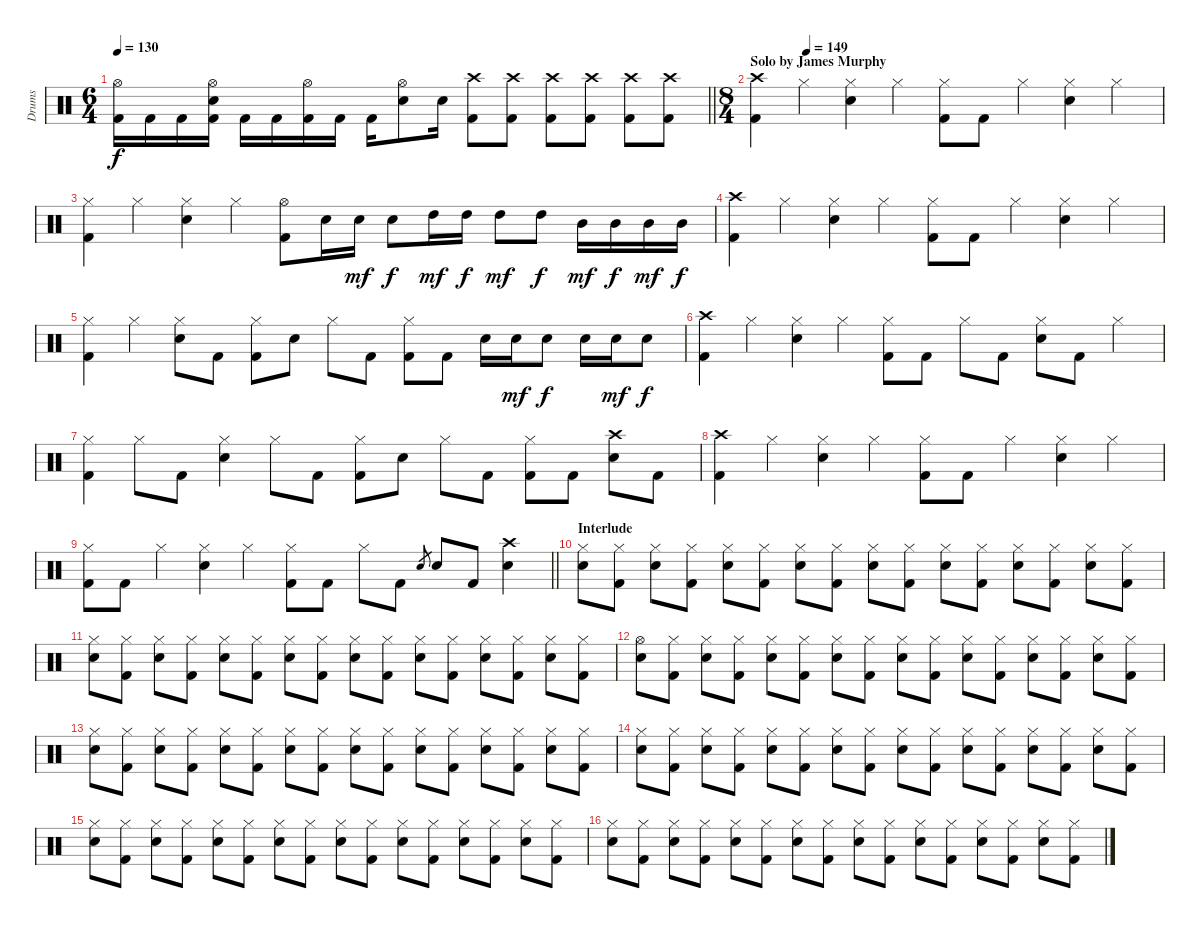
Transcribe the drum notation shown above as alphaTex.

\track ("Drums" "Drums") {instrument percussion}
\staff {score}
\articulation defaults
\ts (6 4)
\tempo 130
\clef neutral
\barLineRight lightlight
\ks c
("Hi-Hat (open)" "Kick (hit) 2").16{dy f} "Kick (hit) 2".16 "Kick (hit) 2".16 ("Hi-Hat (open)" "Snare (hit) 2" "Kick (hit) 2").16 "Kick (hit) 2".16 "Kick (hit) 2".16 ("Hi-Hat (open)" "Kick (hit) 2").16 "Kick (hit) 2".16 "Kick (hit) 2".16 ("Hi-Hat (open)" "Snare (hit) 2").8 "Snare (hit) 2".16 ("Crash high (hit)" "Kick (hit) 2").8 ("Crash high (hit)" "Kick (hit) 2").8 ("Crash high (hit)" "Kick (hit) 2").8 ("Crash high (hit)" "Kick (hit) 2").8 ("Crash high (hit)" "Kick (hit) 2").8 ("Crash high (hit)" "Kick (hit) 2").8 |
\ts (8 4)
\section ("" "Solo by James Murphy")
\tempo (149 0.125)
("Crash high (hit)" "Kick (hit) 2").4 "Hi-Hat (closed)".4 ("Hi-Hat (closed)" "Snare (hit) 2").4 "Hi-Hat (closed)".4 ("Hi-Hat (closed)" "Kick (hit) 2").8 "Kick (hit) 2".8 "Hi-Hat (closed)".4 ("Hi-Hat (closed)" "Snare (hit) 2").4 "Hi-Hat (closed)".4 |
("Hi-Hat (closed)" "Kick (hit) 2").4 "Hi-Hat (closed)".4 ("Hi-Hat (closed)" "Snare (hit) 2").4 "Hi-Hat (closed)".4 ("Hi-Hat (open)" "Kick (hit) 2").8 "Snare (hit) 2".16 "Snare (hit) 2".16{dy mf} "Snare (hit) 2".8{dy f} "High Tom (hit)".16{dy mf} "High Tom (hit)".16{dy f} "High Tom (hit)".8{dy mf} "High Tom (hit)".8{dy f} "Mid Tom (hit)".16{dy mf} "Mid Tom (hit)".16{dy f} "Mid Tom (hit)".16{dy mf} "Mid Tom (hit)".16{dy f} |
("Crash high (hit)" "Kick (hit) 2").4 "Hi-Hat (closed)".4 ("Hi-Hat (closed)" "Snare (hit) 2").4 "Hi-Hat (closed)".4 ("Hi-Hat (closed)" "Kick (hit) 2").8 "Kick (hit) 2".8 "Hi-Hat (closed)".4 ("Hi-Hat (closed)" "Snare (hit) 2").4 "Hi-Hat (closed)".4 |
("Hi-Hat (closed)" "Kick (hit) 2").4 "Hi-Hat (closed)".4 ("Hi-Hat (closed)" "Snare (hit) 2").8 "Kick (hit) 2".8 ("Hi-Hat (closed)" "Kick (hit) 2").8 "Snare (hit) 2".8 "Hi-Hat (closed)".8 "Kick (hit) 2".8 ("Hi-Hat (closed)" "Kick (hit) 2").8 "Kick (hit) 2".8 "Snare (hit) 2".16 "Snare (hit) 2".16{dy mf} "Snare (hit) 2".8{dy f} "Snare (hit) 2".16 "Snare (hit) 2".16{dy mf} "Snare (hit) 2".8{dy f} |
("Crash high (hit)" "Kick (hit) 2").4 "Hi-Hat (closed)".4 ("Hi-Hat (closed)" "Snare (hit) 2").4 "Hi-Hat (closed)".4 ("Hi-Hat (closed)" "Kick (hit) 2").8 "Kick (hit) 2".8 "Hi-Hat (closed)".8 "Kick (hit) 2".8 ("Hi-Hat (closed)" "Snare (hit) 2").8 "Kick (hit) 2".8 "Hi-Hat (closed)".4 |
("Hi-Hat (closed)" "Kick (hit) 2").4 "Hi-Hat (closed)".8 "Kick (hit) 2".8 ("Hi-Hat (closed)" "Snare (hit) 2").4 "Hi-Hat (closed)".8 "Kick (hit) 2".8 ("Hi-Hat (closed)" "Kick (hit) 2").8 "Snare (hit) 2".8 "Hi-Hat (closed)".8 "Kick (hit) 2".8 ("Hi-Hat (closed)" "Kick (hit) 2").8 "Kick (hit) 2".8 ("Crash high (hit)" "Snare (hit) 2").8 "Kick (hit) 2".8 |
("Crash high (hit)" "Kick (hit) 2").4 "Hi-Hat (closed)".4 ("Hi-Hat (closed)" "Snare (hit) 2").4 "Hi-Hat (closed)".4 ("Hi-Hat (closed)" "Kick (hit) 2").8 "Kick (hit) 2".8 "Hi-Hat (closed)".4 ("Hi-Hat (closed)" "Snare (hit) 2").4 "Hi-Hat (closed)".4 |
\barLineRight lightlight
("Hi-Hat (closed)" "Kick (hit) 2").8 "Kick (hit) 2".8 "Hi-Hat (closed)".4 ("Hi-Hat (closed)" "Snare (hit) 2").4 "Hi-Hat (closed)".4 ("Hi-Hat (closed)" "Kick (hit) 2").8 "Kick (hit) 2".8 "Hi-Hat (closed)".8 "Kick (hit) 2".8 "Snare (hit) 2".8{gr} "Snare (hit) 2".8 "Kick (hit) 2".8 ("Crash high (hit)" "Snare (hit) 2").4 |
\section ("" "Interlude")
("Hi-Hat (closed)" "Snare (hit) 2").8 ("Hi-Hat (closed)" "Kick (hit) 2").8 ("Hi-Hat (closed)" "Snare (hit) 2").8 ("Hi-Hat (closed)" "Kick (hit) 2").8 ("Hi-Hat (closed)" "Snare (hit) 2").8 ("Hi-Hat (closed)" "Kick (hit) 2").8 ("Hi-Hat (closed)" "Snare (hit) 2").8 ("Hi-Hat (closed)" "Kick (hit) 2").8 ("Hi-Hat (closed)" "Snare (hit) 2").8 ("Hi-Hat (closed)" "Kick (hit) 2").8 ("Hi-Hat (closed)" "Snare (hit) 2").8 ("Hi-Hat (closed)" "Kick (hit) 2").8 ("Hi-Hat (closed)" "Snare (hit) 2").8 ("Hi-Hat (closed)" "Kick (hit) 2").8 ("Hi-Hat (closed)" "Snare (hit) 2").8 ("Hi-Hat (closed)" "Kick (hit) 2").8 |
("Hi-Hat (closed)" "Snare (hit) 2").8 ("Hi-Hat (closed)" "Kick (hit) 2").8 ("Hi-Hat (closed)" "Snare (hit) 2").8 ("Hi-Hat (closed)" "Kick (hit) 2").8 ("Hi-Hat (closed)" "Snare (hit) 2").8 ("Hi-Hat (closed)" "Kick (hit) 2").8 ("Hi-Hat (closed)" "Snare (hit) 2").8 ("Hi-Hat (closed)" "Kick (hit) 2").8 ("Hi-Hat (closed)" "Snare (hit) 2").8 ("Hi-Hat (closed)" "Kick (hit) 2").8 ("Hi-Hat (closed)" "Snare (hit) 2").8 ("Hi-Hat (closed)" "Kick (hit) 2").8 ("Hi-Hat (closed)" "Snare (hit) 2").8 ("Hi-Hat (closed)" "Kick (hit) 2").8 ("Hi-Hat (closed)" "Snare (hit) 2").8 ("Hi-Hat (closed)" "Kick (hit) 2").8 |
("Hi-Hat (open)" "Snare (hit) 2").8 ("Hi-Hat (closed)" "Kick (hit) 2").8 ("Hi-Hat (closed)" "Snare (hit) 2").8 ("Hi-Hat (closed)" "Kick (hit) 2").8 ("Hi-Hat (closed)" "Snare (hit) 2").8 ("Hi-Hat (closed)" "Kick (hit) 2").8 ("Hi-Hat (closed)" "Snare (hit) 2").8 ("Hi-Hat (closed)" "Kick (hit) 2").8 ("Hi-Hat (closed)" "Snare (hit) 2").8 ("Hi-Hat (closed)" "Kick (hit) 2").8 ("Hi-Hat (closed)" "Snare (hit) 2").8 ("Hi-Hat (closed)" "Kick (hit) 2").8 ("Hi-Hat (closed)" "Snare (hit) 2").8 ("Hi-Hat (closed)" "Kick (hit) 2").8 ("Hi-Hat (closed)" "Snare (hit) 2").8 ("Hi-Hat (closed)" "Kick (hit) 2").8 |
("Hi-Hat (closed)" "Snare (hit) 2").8 ("Hi-Hat (closed)" "Kick (hit) 2").8 ("Hi-Hat (closed)" "Snare (hit) 2").8 ("Hi-Hat (closed)" "Kick (hit) 2").8 ("Hi-Hat (closed)" "Snare (hit) 2").8 ("Hi-Hat (closed)" "Kick (hit) 2").8 ("Hi-Hat (closed)" "Snare (hit) 2").8 ("Hi-Hat (closed)" "Kick (hit) 2").8 ("Hi-Hat (closed)" "Snare (hit) 2").8 ("Hi-Hat (closed)" "Kick (hit) 2").8 ("Hi-Hat (closed)" "Snare (hit) 2").8 ("Hi-Hat (closed)" "Kick (hit) 2").8 ("Hi-Hat (closed)" "Snare (hit) 2").8 ("Hi-Hat (closed)" "Kick (hit) 2").8 ("Hi-Hat (closed)" "Snare (hit) 2").8 ("Hi-Hat (closed)" "Kick (hit) 2").8 |
("Hi-Hat (closed)" "Snare (hit) 2").8 ("Hi-Hat (closed)" "Kick (hit) 2").8 ("Hi-Hat (closed)" "Snare (hit) 2").8 ("Hi-Hat (closed)" "Kick (hit) 2").8 ("Hi-Hat (closed)" "Snare (hit) 2").8 ("Hi-Hat (closed)" "Kick (hit) 2").8 ("Hi-Hat (closed)" "Snare (hit) 2").8 ("Hi-Hat (closed)" "Kick (hit) 2").8 ("Hi-Hat (closed)" "Snare (hit) 2").8 ("Hi-Hat (closed)" "Kick (hit) 2").8 ("Hi-Hat (closed)" "Snare (hit) 2").8 ("Hi-Hat (closed)" "Kick (hit) 2").8 ("Hi-Hat (closed)" "Snare (hit) 2").8 ("Hi-Hat (closed)" "Kick (hit) 2").8 ("Hi-Hat (closed)" "Snare (hit) 2").8 ("Hi-Hat (closed)" "Kick (hit) 2").8 |
("Hi-Hat (closed)" "Snare (hit) 2").8 ("Hi-Hat (closed)" "Kick (hit) 2").8 ("Hi-Hat (closed)" "Snare (hit) 2").8 ("Hi-Hat (closed)" "Kick (hit) 2").8 ("Hi-Hat (closed)" "Snare (hit) 2").8 ("Hi-Hat (closed)" "Kick (hit) 2").8 ("Hi-Hat (closed)" "Snare (hit) 2").8 ("Hi-Hat (closed)" "Kick (hit) 2").8 ("Hi-Hat (closed)" "Snare (hit) 2").8 ("Hi-Hat (closed)" "Kick (hit) 2").8 ("Hi-Hat (closed)" "Snare (hit) 2").8 ("Hi-Hat (closed)" "Kick (hit) 2").8 ("Hi-Hat (closed)" "Snare (hit) 2").8 ("Hi-Hat (closed)" "Kick (hit) 2").8 ("Hi-Hat (closed)" "Snare (hit) 2").8 ("Hi-Hat (closed)" "Kick (hit) 2").8 |
("Hi-Hat (closed)" "Snare (hit) 2").8 ("Hi-Hat (closed)" "Kick (hit) 2").8 ("Hi-Hat (closed)" "Snare (hit) 2").8 ("Hi-Hat (closed)" "Kick (hit) 2").8 ("Hi-Hat (closed)" "Snare (hit) 2").8 ("Hi-Hat (closed)" "Kick (hit) 2").8 ("Hi-Hat (closed)" "Snare (hit) 2").8 ("Hi-Hat (closed)" "Kick (hit) 2").8 ("Hi-Hat (closed)" "Snare (hit) 2").8 ("Hi-Hat (closed)" "Kick (hit) 2").8 ("Hi-Hat (closed)" "Snare (hit) 2").8 ("Hi-Hat (closed)" "Kick (hit) 2").8 ("Hi-Hat (closed)" "Snare (hit) 2").8 ("Hi-Hat (closed)" "Kick (hit) 2").8 ("Hi-Hat (closed)" "Snare (hit) 2").8 ("Hi-Hat (closed)" "Kick (hit) 2").8
